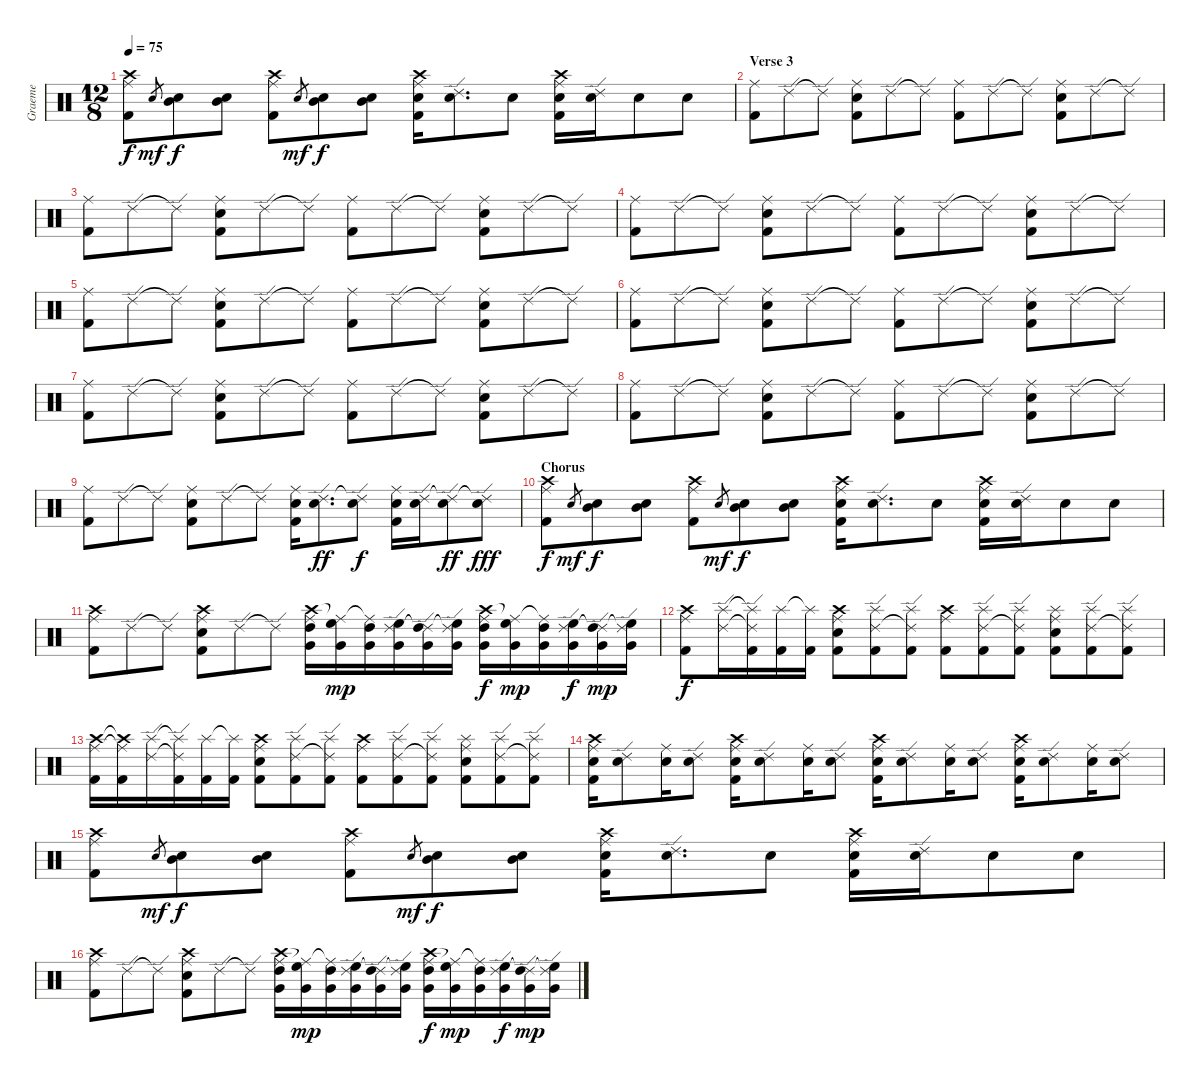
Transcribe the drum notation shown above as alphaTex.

\track ("Graeme" "Graeme") {instrument percussion}
\staff {score}
\articulation defaults
\ts (12 8)
\tempo 75
\clef neutral
\ks c
("Crash high (hit)" "Ride (middle)" "Kick (hit) 2").8{dy f} "Electric Snare (hit)".8{gr dy mf} ("Mid Tom (hit)" "Electric Snare (hit)").8{dy f} ("Mid Tom (hit)" "Electric Snare (hit)").8 ("Crash high (hit)" "Ride (middle)" "Kick (hit) 2").8 "Electric Snare (hit)".8{gr dy mf} ("Mid Tom (hit)" "Electric Snare (hit)").8{dy f} ("Mid Tom (hit)" "Electric Snare (hit)").8 ("Crash high (hit)" "Ride (middle)" "Electric Snare (hit)" "Kick (hit) 2").16 ("Ride (edge) 2" "Electric Snare (hit)").8{d} "Electric Snare (hit)".8 ("Crash high (hit)" "Ride (middle)" "Electric Snare (hit)" "Kick (hit) 2").16 ("Ride (edge) 2" "Electric Snare (hit)").16 "Electric Snare (hit)".8 "Electric Snare (hit)".8 |
\section ("" "Verse 3")
("Ride (middle)" "Kick (hit) 2").8 "Ride (edge) 2".8 "Ride (edge) 2"{t}.8 ("Ride (middle)" "Electric Snare (hit)" "Kick (hit) 2").8 "Ride (edge) 2".8 "Ride (edge) 2"{t}.8 ("Ride (middle)" "Kick (hit) 2").8 "Ride (edge) 2".8 "Ride (edge) 2"{t}.8 ("Ride (middle)" "Electric Snare (hit)" "Kick (hit) 2").8 "Ride (edge) 2".8 "Ride (edge) 2"{t}.8 |
("Ride (middle)" "Kick (hit) 2").8 "Ride (edge) 2".8 "Ride (edge) 2"{t}.8 ("Ride (middle)" "Electric Snare (hit)" "Kick (hit) 2").8 "Ride (edge) 2".8 "Ride (edge) 2"{t}.8 ("Ride (middle)" "Kick (hit) 2").8 "Ride (edge) 2".8 "Ride (edge) 2"{t}.8 ("Ride (middle)" "Electric Snare (hit)" "Kick (hit) 2").8 "Ride (edge) 2".8 "Ride (edge) 2"{t}.8 |
("Ride (middle)" "Kick (hit) 2").8 "Ride (edge) 2".8 "Ride (edge) 2"{t}.8 ("Ride (middle)" "Electric Snare (hit)" "Kick (hit) 2").8 "Ride (edge) 2".8 "Ride (edge) 2"{t}.8 ("Ride (middle)" "Kick (hit) 2").8 "Ride (edge) 2".8 "Ride (edge) 2"{t}.8 ("Ride (middle)" "Electric Snare (hit)" "Kick (hit) 2").8 "Ride (edge) 2".8 "Ride (edge) 2"{t}.8 |
("Ride (middle)" "Kick (hit) 2").8 "Ride (edge) 2".8 "Ride (edge) 2"{t}.8 ("Ride (middle)" "Electric Snare (hit)" "Kick (hit) 2").8 "Ride (edge) 2".8 "Ride (edge) 2"{t}.8 ("Ride (middle)" "Kick (hit) 2").8 "Ride (edge) 2".8 "Ride (edge) 2"{t}.8 ("Ride (middle)" "Electric Snare (hit)" "Kick (hit) 2").8 "Ride (edge) 2".8 "Ride (edge) 2"{t}.8 |
("Ride (middle)" "Kick (hit) 2").8 "Ride (edge) 2".8 "Ride (edge) 2"{t}.8 ("Ride (middle)" "Electric Snare (hit)" "Kick (hit) 2").8 "Ride (edge) 2".8 "Ride (edge) 2"{t}.8 ("Ride (middle)" "Kick (hit) 2").8 "Ride (edge) 2".8 "Ride (edge) 2"{t}.8 ("Ride (middle)" "Electric Snare (hit)" "Kick (hit) 2").8 "Ride (edge) 2".8 "Ride (edge) 2"{t}.8 |
("Ride (middle)" "Kick (hit) 2").8 "Ride (edge) 2".8 "Ride (edge) 2"{t}.8 ("Ride (middle)" "Electric Snare (hit)" "Kick (hit) 2").8 "Ride (edge) 2".8 "Ride (edge) 2"{t}.8 ("Ride (middle)" "Kick (hit) 2").8 "Ride (edge) 2".8 "Ride (edge) 2"{t}.8 ("Ride (middle)" "Electric Snare (hit)" "Kick (hit) 2").8 "Ride (edge) 2".8 "Ride (edge) 2"{t}.8 |
("Ride (middle)" "Kick (hit) 2").8 "Ride (edge) 2".8 "Ride (edge) 2"{t}.8 ("Ride (middle)" "Electric Snare (hit)" "Kick (hit) 2").8 "Ride (edge) 2".8 "Ride (edge) 2"{t}.8 ("Ride (middle)" "Kick (hit) 2").8 "Ride (edge) 2".8 "Ride (edge) 2"{t}.8 ("Ride (middle)" "Electric Snare (hit)" "Kick (hit) 2").8 "Ride (edge) 2".8 "Ride (edge) 2"{t}.8 |
("Ride (middle)" "Kick (hit) 2").8 "Ride (edge) 2".8 "Ride (edge) 2"{t}.8 ("Ride (middle)" "Electric Snare (hit)" "Kick (hit) 2").8 "Ride (edge) 2".8 "Ride (edge) 2"{t}.8 ("Ride (middle)" "Electric Snare (hit)" "Kick (hit) 2").16 ("Ride (edge) 2" "Electric Snare (hit)").8{d dy ff} ("Ride (edge) 2"{t} "Electric Snare (hit)").8{dy f} ("Ride (middle)" "Electric Snare (hit)" "Kick (hit) 2").16 ("Ride (edge) 2" "Electric Snare (hit)").16 ("Ride (edge) 2"{t} "Electric Snare (hit)").8{dy ff} ("Ride (edge) 2"{t} "Electric Snare (hit)").8{dy fff} |
\section ("" "Chorus")
("Crash high (hit)" "Ride (middle)" "Kick (hit) 2").8{dy f} "Electric Snare (hit)".8{gr dy mf} ("Mid Tom (hit)" "Electric Snare (hit)").8{dy f} ("Mid Tom (hit)" "Electric Snare (hit)").8 ("Crash high (hit)" "Ride (middle)" "Kick (hit) 2").8 "Electric Snare (hit)".8{gr dy mf} ("Mid Tom (hit)" "Electric Snare (hit)").8{dy f} ("Mid Tom (hit)" "Electric Snare (hit)").8 ("Crash high (hit)" "Ride (middle)" "Electric Snare (hit)" "Kick (hit) 2").16 ("Ride (edge) 2" "Electric Snare (hit)").8{d} "Electric Snare (hit)".8 ("Crash high (hit)" "Ride (middle)" "Electric Snare (hit)" "Kick (hit) 2").16 ("Ride (edge) 2" "Electric Snare (hit)").16 "Electric Snare (hit)".8 "Electric Snare (hit)".8 |
("Crash high (hit)" "Ride (middle)" "Kick (hit) 2").8 "Ride (edge) 2".8 "Ride (edge) 2"{t}.8 ("Crash high (hit)" "Ride (middle)" "Electric Snare (hit)" "Kick (hit) 2").8 "Ride (edge) 2".8 "Ride (edge) 2"{t}.8 ("Crash high (hit)" "Ride (middle)" "High Tom (hit)" "Very Low Tom (hit)").16 ("Ride (middle)"{t} "High Floor Tom (hit)" "Very Low Tom (hit)").16{dy mp} ("Ride (middle)"{t} "High Tom (hit)" "Very Low Tom (hit)").16 ("Ride (edge) 2" "High Floor Tom (hit)" "Very Low Tom (hit)").16 ("Ride (edge) 2"{t} "High Tom (hit)" "Very Low Tom (hit)").16 ("Ride (edge) 2"{t} "High Floor Tom (hit)" "Very Low Tom (hit)").16 ("Crash high (hit)" "Ride (middle)" "High Tom (hit)" "Very Low Tom (hit)").16{dy f} ("Ride (middle)"{t} "High Floor Tom (hit)" "Very Low Tom (hit)").16{dy mp} ("Ride (middle)"{t} "High Tom (hit)" "Very Low Tom (hit)").16 ("Ride (edge) 2" "High Floor Tom (hit)" "Very Low Tom (hit)").16{dy f} ("Ride (edge) 2"{t} "High Tom (hit)" "Very Low Tom (hit)").16{dy mp} ("Ride (edge) 2"{t} "High Floor Tom (hit)" "Very Low Tom (hit)").16 |
("Crash high (hit)" "Ride (middle)" "Kick (hit) 2").8{dy f} ("Splash (hit)" "Ride (edge) 2").16 ("Splash (hit)"{t} "Ride (edge) 2"{t} "Kick (hit) 2").16 ("Splash (hit)" "Kick (hit) 2").16 ("Splash (hit)"{t} "Kick (hit) 2").16 ("Crash high (hit)" "Ride (middle)" "Electric Snare (hit)" "Kick (hit) 2").8 ("Splash (hit)" "Ride (edge) 2" "Kick (hit) 2").8 ("Splash (hit)" "Ride (edge) 2"{t} "Kick (hit) 2").8 ("Crash high (hit)" "Ride (middle)" "Kick (hit) 2").8 ("Splash (hit)" "Ride (edge) 2" "Kick (hit) 2").8 ("Splash (hit)" "Ride (edge) 2"{t} "Kick (hit) 2").8 ("Splash (hit)" "Ride (middle)" "Electric Snare (hit)" "Kick (hit) 2").8 ("Splash (hit)" "Ride (edge) 2" "Kick (hit) 2").8 ("Splash (hit)" "Ride (edge) 2"{t} "Kick (hit) 2").8 |
("Crash high (hit)" "Ride (middle)" "Kick (hit) 2").16 ("Crash high (hit)"{t} "Ride (middle)"{t} "Kick (hit) 2").16 ("Splash (hit)" "Ride (edge) 2").16 ("Splash (hit)"{t} "Ride (edge) 2"{t} "Kick (hit) 2").16 ("Splash (hit)" "Kick (hit) 2").16 ("Splash (hit)"{t} "Kick (hit) 2").16 ("Crash high (hit)" "Ride (middle)" "Electric Snare (hit)" "Kick (hit) 2").8 ("Splash (hit)" "Ride (edge) 2" "Kick (hit) 2").8 ("Splash (hit)" "Ride (edge) 2"{t} "Kick (hit) 2").8 ("Crash high (hit)" "Ride (middle)" "Kick (hit) 2").8 ("Splash (hit)" "Ride (edge) 2" "Kick (hit) 2").8 ("Splash (hit)" "Ride (edge) 2"{t} "Kick (hit) 2").8 ("Splash (hit)" "Ride (middle)" "Electric Snare (hit)" "Kick (hit) 2").8 ("Splash (hit)" "Ride (edge) 2" "Kick (hit) 2").8 ("Splash (hit)" "Ride (edge) 2"{t} "Kick (hit) 2").8 |
("Crash high (hit)" "Ride (middle)" "Electric Snare (hit)" "Kick (hit) 2").16 ("Ride (edge) 2" "Electric Snare (hit)").8 ("Ride (middle)" "Electric Snare (hit)").16 ("Ride (edge) 2" "Electric Snare (hit)").8 ("Crash high (hit)" "Ride (middle)" "Electric Snare (hit)" "Kick (hit) 2").16 ("Ride (edge) 2" "Electric Snare (hit)").8 ("Ride (middle)" "Electric Snare (hit)").16 ("Ride (edge) 2" "Electric Snare (hit)").8 ("Crash high (hit)" "Ride (middle)" "Electric Snare (hit)" "Kick (hit) 2").16 ("Ride (edge) 2" "Electric Snare (hit)").8 ("Ride (middle)" "Electric Snare (hit)").16 ("Ride (edge) 2" "Electric Snare (hit)").8 ("Crash high (hit)" "Ride (middle)" "Electric Snare (hit)" "Kick (hit) 2").16 ("Ride (edge) 2" "Electric Snare (hit)").8 ("Ride (middle)" "Electric Snare (hit)").16 ("Ride (edge) 2" "Electric Snare (hit)").8 |
("Crash high (hit)" "Ride (middle)" "Kick (hit) 2").8 "Electric Snare (hit)".8{gr dy mf} ("Mid Tom (hit)" "Electric Snare (hit)").8{dy f} ("Mid Tom (hit)" "Electric Snare (hit)").8 ("Crash high (hit)" "Ride (middle)" "Kick (hit) 2").8 "Electric Snare (hit)".8{gr dy mf} ("Mid Tom (hit)" "Electric Snare (hit)").8{dy f} ("Mid Tom (hit)" "Electric Snare (hit)").8 ("Crash high (hit)" "Ride (middle)" "Electric Snare (hit)" "Kick (hit) 2").16 ("Ride (edge) 2" "Electric Snare (hit)").8{d} "Electric Snare (hit)".8 ("Crash high (hit)" "Ride (middle)" "Electric Snare (hit)" "Kick (hit) 2").16 ("Ride (edge) 2" "Electric Snare (hit)").16 "Electric Snare (hit)".8 "Electric Snare (hit)".8 |
("Crash high (hit)" "Ride (middle)" "Kick (hit) 2").8 "Ride (edge) 2".8 "Ride (edge) 2"{t}.8 ("Crash high (hit)" "Ride (middle)" "Electric Snare (hit)" "Kick (hit) 2").8 "Ride (edge) 2".8 "Ride (edge) 2"{t}.8 ("Crash high (hit)" "Ride (middle)" "High Tom (hit)" "Very Low Tom (hit)").16 ("Ride (middle)"{t} "High Floor Tom (hit)" "Very Low Tom (hit)").16{dy mp} ("Ride (middle)"{t} "High Tom (hit)" "Very Low Tom (hit)").16 ("Ride (edge) 2" "High Floor Tom (hit)" "Very Low Tom (hit)").16 ("Ride (edge) 2"{t} "High Tom (hit)" "Very Low Tom (hit)").16 ("Ride (edge) 2"{t} "High Floor Tom (hit)" "Very Low Tom (hit)").16 ("Crash high (hit)" "Ride (middle)" "High Tom (hit)" "Very Low Tom (hit)").16{dy f} ("Ride (middle)"{t} "High Floor Tom (hit)" "Very Low Tom (hit)").16{dy mp} ("Ride (middle)"{t} "High Tom (hit)" "Very Low Tom (hit)").16 ("Ride (edge) 2" "High Floor Tom (hit)" "Very Low Tom (hit)").16{dy f} ("Ride (edge) 2"{t} "High Tom (hit)" "Very Low Tom (hit)").16{dy mp} ("Ride (edge) 2"{t} "High Floor Tom (hit)" "Very Low Tom (hit)").16
